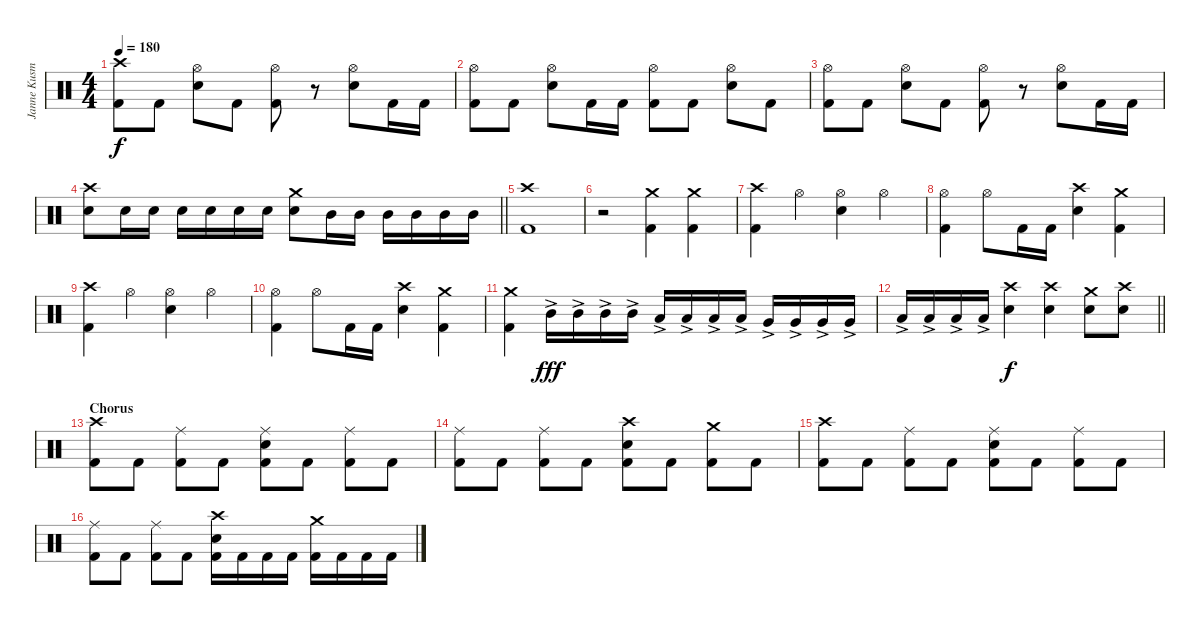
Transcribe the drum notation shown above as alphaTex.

\track ("Janne Kusmin - Drums" "Janne Kusm") {instrument percussion}
\staff {score}
\articulation defaults
\ts (4 4)
\tempo 180
\clef neutral
\ks c
("Crash high (hit)" "Kick (hit) 2").8{dy f} "Kick (hit) 2".8 ("Hi-Hat (open)" "Electric Snare (hit)").8 "Kick (hit) 2".8 ("Hi-Hat (open)" "Kick (hit) 2").8 r.8 ("Hi-Hat (open)" "Electric Snare (hit)").8 "Kick (hit) 2".16 "Kick (hit) 2".16 |
("Hi-Hat (open)" "Kick (hit) 2").8 "Kick (hit) 2".8 ("Hi-Hat (open)" "Electric Snare (hit)").8 "Kick (hit) 2".16 "Kick (hit) 2".16 ("Hi-Hat (open)" "Kick (hit) 2").8 "Kick (hit) 2".8 ("Hi-Hat (open)" "Electric Snare (hit)").8 "Kick (hit) 2".8 |
("Hi-Hat (open)" "Kick (hit) 2").8 "Kick (hit) 2".8 ("Hi-Hat (open)" "Electric Snare (hit)").8 "Kick (hit) 2".8 ("Hi-Hat (open)" "Kick (hit) 2").8 r.8 ("Hi-Hat (open)" "Electric Snare (hit)").8 "Kick (hit) 2".16 "Kick (hit) 2".16 |
\barLineRight lightlight
("Crash high (hit)" "Electric Snare (hit)").8 "Electric Snare (hit)".16 "Electric Snare (hit)".16 "Electric Snare (hit)".16 "Electric Snare (hit)".16 "Electric Snare (hit)".16 "Electric Snare (hit)".16 ("Crash medium (hit)" "Electric Snare (hit)").8 "Mid Tom (hit)".16 "Mid Tom (hit)".16 "Mid Tom (hit)".16 "Mid Tom (hit)".16 "Mid Tom (hit)".16 "Mid Tom (hit)".16 |
\section ("" "")
("Crash high (hit)" "Kick (hit) 2").1 |
r.2 ("Crash medium (hit)" "Kick (hit) 2").4 ("Crash medium (hit)" "Kick (hit) 2").4 |
("Crash high (hit)" "Kick (hit) 2").4 "Hi-Hat (open)".4 ("Hi-Hat (open)" "Electric Snare (hit)").4 "Hi-Hat (open)".4 |
("Hi-Hat (open)" "Kick (hit) 2").4 "Hi-Hat (open)".8 "Kick (hit) 2".16 "Kick (hit) 2".16 ("Crash high (hit)" "Electric Snare (hit)").4 ("Crash medium (hit)" "Kick (hit) 2").4 |
("Crash high (hit)" "Kick (hit) 2").4 "Hi-Hat (open)".4 ("Hi-Hat (open)" "Electric Snare (hit)").4 "Hi-Hat (open)".4 |
("Hi-Hat (open)" "Kick (hit) 2").4 "Hi-Hat (open)".8 "Kick (hit) 2".16 "Kick (hit) 2".16 ("Crash high (hit)" "Electric Snare (hit)").4 ("Crash medium (hit)" "Kick (hit) 2").4 |
("Crash medium (hit)" "Kick (hit) 2").4 "Mid Tom (hit)"{ac}.16{dy fff} "Mid Tom (hit)"{ac}.16 "Mid Tom (hit)"{ac}.16 "Mid Tom (hit)"{ac}.16 "Low Tom (hit)"{ac}.16 "Low Tom (hit)"{ac}.16 "Low Tom (hit)"{ac}.16 "Low Tom (hit)"{ac}.16 "Very Low Tom (hit)"{ac}.16 "Very Low Tom (hit)"{ac}.16 "Very Low Tom (hit)"{ac}.16 "Very Low Tom (hit)"{ac}.16 |
\barLineRight lightlight "Low Floor Tom (hit)"{ac}.16 "Low Floor Tom (hit)"{ac}.16 "Low Floor Tom (hit)"{ac}.16 "Low Floor Tom (hit)"{ac}.16
("Crash high (hit)" "Electric Snare (hit)").4{dy f} ("Crash high (hit)" "Electric Snare (hit)").4 ("Crash medium (hit)" "Electric Snare (hit)").8 ("Crash high (hit)" "Electric Snare (hit)").8 |
\section ("" "Chorus")
("Crash high (hit)" "Kick (hit) 2").8 "Kick (hit) 2".8 ("Ride (middle)" "Kick (hit) 2").8 "Kick (hit) 2".8 ("Ride (middle)" "Electric Snare (hit)" "Kick (hit) 2").8 "Kick (hit) 2".8 ("Ride (middle)" "Kick (hit) 2").8 "Kick (hit) 2".8 |
("Ride (middle)" "Kick (hit) 2").8 "Kick (hit) 2".8 ("Ride (middle)" "Kick (hit) 2").8 "Kick (hit) 2".8 ("Crash high (hit)" "Electric Snare (hit)" "Kick (hit) 2").8 "Kick (hit) 2".8 ("Crash medium (hit)" "Kick (hit) 2").8 "Kick (hit) 2".8 |
("Crash high (hit)" "Kick (hit) 2").8 "Kick (hit) 2".8 ("Ride (middle)" "Kick (hit) 2").8 "Kick (hit) 2".8 ("Ride (middle)" "Electric Snare (hit)" "Kick (hit) 2").8 "Kick (hit) 2".8 ("Ride (middle)" "Kick (hit) 2").8 "Kick (hit) 2".8 |
("Ride (middle)" "Kick (hit) 2").8 "Kick (hit) 2".8 ("Ride (middle)" "Kick (hit) 2").8 "Kick (hit) 2".8 ("Crash high (hit)" "Electric Snare (hit)" "Kick (hit) 2").16 "Kick (hit) 2".16 "Kick (hit) 2".16 "Kick (hit) 2".16 ("Crash medium (hit)" "Kick (hit) 2").16 "Kick (hit) 2".16 "Kick (hit) 2".16 "Kick (hit) 2".16
